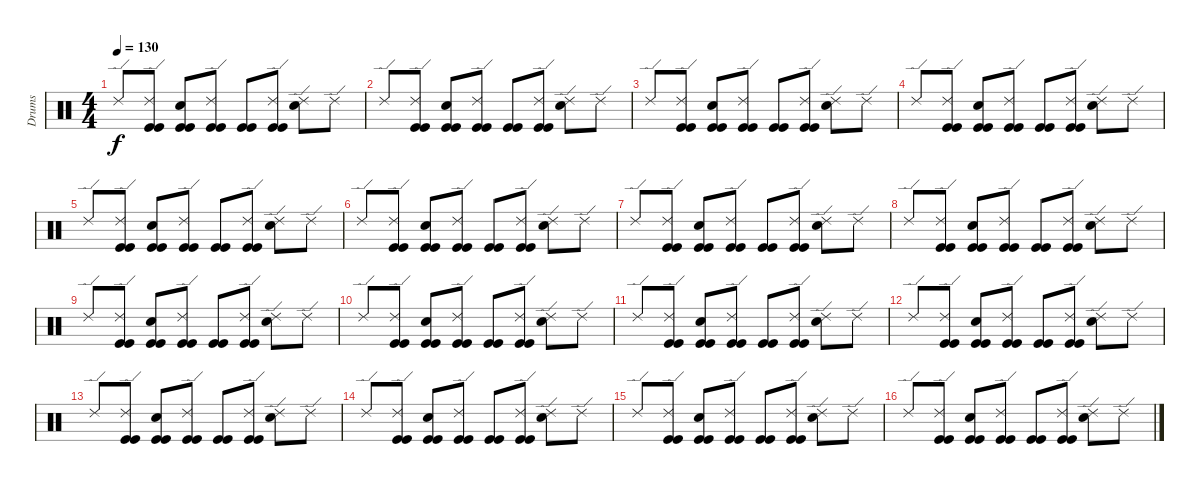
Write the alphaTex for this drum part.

\track ("Drums" "Drums") {instrument percussion}
\staff {score}
\articulation defaults
\ts (4 4)
\tempo 130
\clef neutral
\ks c "Ride (edge) 2".8{dy f}
("Ride (edge) 2" "Kick (hit)" "Kick (hit)").8 ("Snare (hit) 2" "Kick (hit)" "Kick (hit)").8 ("Ride (edge) 2" "Kick (hit)" "Kick (hit)").8 ("Kick (hit)" "Kick (hit)").8 ("Ride (edge) 2" "Kick (hit)" "Kick (hit)").8 ("Ride (edge) 2" "Snare (hit) 2").8 "Ride (edge) 2".8 |
"Ride (edge) 2".8 ("Ride (edge) 2" "Kick (hit)" "Kick (hit)").8 ("Snare (hit) 2" "Kick (hit)" "Kick (hit)").8 ("Ride (edge) 2" "Kick (hit)" "Kick (hit)").8 ("Kick (hit)" "Kick (hit)").8 ("Ride (edge) 2" "Kick (hit)" "Kick (hit)").8 ("Ride (edge) 2" "Snare (hit) 2").8 "Ride (edge) 2".8 |
"Ride (edge) 2".8 ("Ride (edge) 2" "Kick (hit)" "Kick (hit)").8 ("Snare (hit) 2" "Kick (hit)" "Kick (hit)").8 ("Ride (edge) 2" "Kick (hit)" "Kick (hit)").8 ("Kick (hit)" "Kick (hit)").8 ("Ride (edge) 2" "Kick (hit)" "Kick (hit)").8 ("Ride (edge) 2" "Snare (hit) 2").8 "Ride (edge) 2".8 |
"Ride (edge) 2".8 ("Ride (edge) 2" "Kick (hit)" "Kick (hit)").8 ("Snare (hit) 2" "Kick (hit)" "Kick (hit)").8 ("Ride (edge) 2" "Kick (hit)" "Kick (hit)").8 ("Kick (hit)" "Kick (hit)").8 ("Ride (edge) 2" "Kick (hit)" "Kick (hit)").8 ("Ride (edge) 2" "Snare (hit) 2").8 "Ride (edge) 2".8 |
"Ride (edge) 2".8 ("Ride (edge) 2" "Kick (hit)" "Kick (hit)").8 ("Snare (hit) 2" "Kick (hit)" "Kick (hit)").8 ("Ride (edge) 2" "Kick (hit)" "Kick (hit)").8 ("Kick (hit)" "Kick (hit)").8 ("Ride (edge) 2" "Kick (hit)" "Kick (hit)").8 ("Ride (edge) 2" "Snare (hit) 2").8 "Ride (edge) 2".8 |
"Ride (edge) 2".8 ("Ride (edge) 2" "Kick (hit)" "Kick (hit)").8 ("Snare (hit) 2" "Kick (hit)" "Kick (hit)").8 ("Ride (edge) 2" "Kick (hit)" "Kick (hit)").8 ("Kick (hit)" "Kick (hit)").8 ("Ride (edge) 2" "Kick (hit)" "Kick (hit)").8 ("Ride (edge) 2" "Snare (hit) 2").8 "Ride (edge) 2".8 |
"Ride (edge) 2".8 ("Ride (edge) 2" "Kick (hit)" "Kick (hit)").8 ("Snare (hit) 2" "Kick (hit)" "Kick (hit)").8 ("Ride (edge) 2" "Kick (hit)" "Kick (hit)").8 ("Kick (hit)" "Kick (hit)").8 ("Ride (edge) 2" "Kick (hit)" "Kick (hit)").8 ("Ride (edge) 2" "Snare (hit) 2").8 "Ride (edge) 2".8 |
"Ride (edge) 2".8 ("Ride (edge) 2" "Kick (hit)" "Kick (hit)").8 ("Snare (hit) 2" "Kick (hit)" "Kick (hit)").8 ("Ride (edge) 2" "Kick (hit)" "Kick (hit)").8 ("Kick (hit)" "Kick (hit)").8 ("Ride (edge) 2" "Kick (hit)" "Kick (hit)").8 ("Ride (edge) 2" "Snare (hit) 2").8 "Ride (edge) 2".8 |
"Ride (edge) 2".8 ("Ride (edge) 2" "Kick (hit)" "Kick (hit)").8 ("Snare (hit) 2" "Kick (hit)" "Kick (hit)").8 ("Ride (edge) 2" "Kick (hit)" "Kick (hit)").8 ("Kick (hit)" "Kick (hit)").8 ("Ride (edge) 2" "Kick (hit)" "Kick (hit)").8 ("Ride (edge) 2" "Snare (hit) 2").8 "Ride (edge) 2".8 |
"Ride (edge) 2".8 ("Ride (edge) 2" "Kick (hit)" "Kick (hit)").8 ("Snare (hit) 2" "Kick (hit)" "Kick (hit)").8 ("Ride (edge) 2" "Kick (hit)" "Kick (hit)").8 ("Kick (hit)" "Kick (hit)").8 ("Ride (edge) 2" "Kick (hit)" "Kick (hit)").8 ("Ride (edge) 2" "Snare (hit) 2").8 "Ride (edge) 2".8 |
"Ride (edge) 2".8 ("Ride (edge) 2" "Kick (hit)" "Kick (hit)").8 ("Snare (hit) 2" "Kick (hit)" "Kick (hit)").8 ("Ride (edge) 2" "Kick (hit)" "Kick (hit)").8 ("Kick (hit)" "Kick (hit)").8 ("Ride (edge) 2" "Kick (hit)" "Kick (hit)").8 ("Ride (edge) 2" "Snare (hit) 2").8 "Ride (edge) 2".8 |
"Ride (edge) 2".8 ("Ride (edge) 2" "Kick (hit)" "Kick (hit)").8 ("Snare (hit) 2" "Kick (hit)" "Kick (hit)").8 ("Ride (edge) 2" "Kick (hit)" "Kick (hit)").8 ("Kick (hit)" "Kick (hit)").8 ("Ride (edge) 2" "Kick (hit)" "Kick (hit)").8 ("Ride (edge) 2" "Snare (hit) 2").8 "Ride (edge) 2".8 |
"Ride (edge) 2".8 ("Ride (edge) 2" "Kick (hit)" "Kick (hit)").8 ("Snare (hit) 2" "Kick (hit)" "Kick (hit)").8 ("Ride (edge) 2" "Kick (hit)" "Kick (hit)").8 ("Kick (hit)" "Kick (hit)").8 ("Ride (edge) 2" "Kick (hit)" "Kick (hit)").8 ("Ride (edge) 2" "Snare (hit) 2").8 "Ride (edge) 2".8 |
"Ride (edge) 2".8 ("Ride (edge) 2" "Kick (hit)" "Kick (hit)").8 ("Snare (hit) 2" "Kick (hit)" "Kick (hit)").8 ("Ride (edge) 2" "Kick (hit)" "Kick (hit)").8 ("Kick (hit)" "Kick (hit)").8 ("Ride (edge) 2" "Kick (hit)" "Kick (hit)").8 ("Ride (edge) 2" "Snare (hit) 2").8 "Ride (edge) 2".8 |
"Ride (edge) 2".8 ("Ride (edge) 2" "Kick (hit)" "Kick (hit)").8 ("Snare (hit) 2" "Kick (hit)" "Kick (hit)").8 ("Ride (edge) 2" "Kick (hit)" "Kick (hit)").8 ("Kick (hit)" "Kick (hit)").8 ("Ride (edge) 2" "Kick (hit)" "Kick (hit)").8 ("Ride (edge) 2" "Snare (hit) 2").8 "Ride (edge) 2".8 |
"Ride (edge) 2".8 ("Ride (edge) 2" "Kick (hit)" "Kick (hit)").8 ("Snare (hit) 2" "Kick (hit)" "Kick (hit)").8 ("Ride (edge) 2" "Kick (hit)" "Kick (hit)").8 ("Kick (hit)" "Kick (hit)").8 ("Ride (edge) 2" "Kick (hit)" "Kick (hit)").8 ("Ride (edge) 2" "Snare (hit) 2").8 "Ride (edge) 2".8
